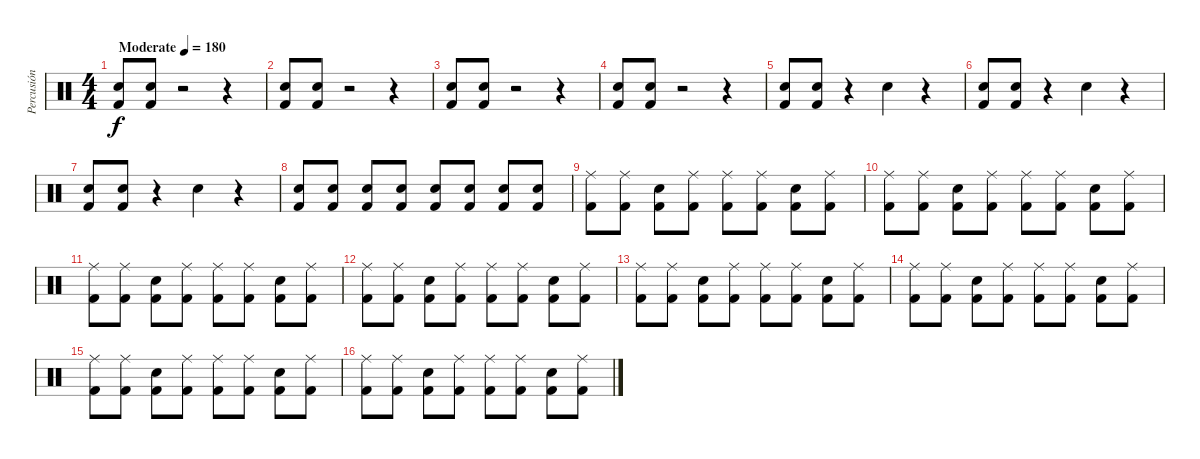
\track ("Percusión" "Percusión") {instrument percussion}
\staff {score}
\articulation defaults
\ts (4 4)
\tempo (180 "Moderate")
\clef neutral
\ks c
("Kick (hit) 2" "Snare (hit) 2").8{dy f} ("Kick (hit) 2" "Snare (hit) 2").8 r.2 r.4 |
("Kick (hit) 2" "Snare (hit) 2").8 ("Kick (hit) 2" "Snare (hit) 2").8 r.2 r.4 |
("Kick (hit) 2" "Snare (hit) 2").8 ("Kick (hit) 2" "Snare (hit) 2").8 r.2 r.4 |
("Kick (hit) 2" "Snare (hit) 2").8 ("Kick (hit) 2" "Snare (hit) 2").8 r.2 r.4 |
("Kick (hit) 2" "Snare (hit) 2").8 ("Kick (hit) 2" "Snare (hit) 2").8 r.4 "Snare (hit) 2".4 r.4 |
("Kick (hit) 2" "Snare (hit) 2").8 ("Kick (hit) 2" "Snare (hit) 2").8 r.4 "Snare (hit) 2".4 r.4 |
("Kick (hit) 2" "Snare (hit) 2").8 ("Kick (hit) 2" "Snare (hit) 2").8 r.4 "Snare (hit) 2".4 r.4 |
("Kick (hit) 2" "Snare (hit) 2").8 ("Kick (hit) 2" "Snare (hit) 2").8 ("Kick (hit) 2" "Snare (hit) 2").8 ("Kick (hit) 2" "Snare (hit) 2").8 ("Kick (hit) 2" "Snare (hit) 2").8 ("Kick (hit) 2" "Snare (hit) 2").8 ("Kick (hit) 2" "Snare (hit) 2").8 ("Kick (hit) 2" "Snare (hit) 2").8 |
("Kick (hit) 2" "Ride (middle)").8 ("Kick (hit) 2" "Ride (middle)").8 ("Kick (hit) 2" "Snare (hit) 2").8 ("Kick (hit) 2" "Ride (middle)").8 ("Kick (hit) 2" "Ride (middle)").8 ("Kick (hit) 2" "Ride (middle)").8 ("Kick (hit) 2" "Snare (hit) 2").8 ("Kick (hit) 2" "Ride (middle)").8 |
("Kick (hit) 2" "Ride (middle)").8 ("Kick (hit) 2" "Ride (middle)").8 ("Kick (hit) 2" "Snare (hit) 2").8 ("Kick (hit) 2" "Ride (middle)").8 ("Kick (hit) 2" "Ride (middle)").8 ("Kick (hit) 2" "Ride (middle)").8 ("Kick (hit) 2" "Snare (hit) 2").8 ("Kick (hit) 2" "Ride (middle)").8 |
("Kick (hit) 2" "Ride (middle)").8 ("Kick (hit) 2" "Ride (middle)").8 ("Kick (hit) 2" "Snare (hit) 2").8 ("Kick (hit) 2" "Ride (middle)").8 ("Kick (hit) 2" "Ride (middle)").8 ("Kick (hit) 2" "Ride (middle)").8 ("Kick (hit) 2" "Snare (hit) 2").8 ("Kick (hit) 2" "Ride (middle)").8 |
("Kick (hit) 2" "Ride (middle)").8 ("Kick (hit) 2" "Ride (middle)").8 ("Kick (hit) 2" "Snare (hit) 2").8 ("Kick (hit) 2" "Ride (middle)").8 ("Kick (hit) 2" "Ride (middle)").8 ("Kick (hit) 2" "Ride (middle)").8 ("Kick (hit) 2" "Snare (hit) 2").8 ("Kick (hit) 2" "Ride (middle)").8 |
("Kick (hit) 2" "Ride (middle)").8 ("Kick (hit) 2" "Ride (middle)").8 ("Kick (hit) 2" "Snare (hit) 2").8 ("Kick (hit) 2" "Ride (middle)").8 ("Kick (hit) 2" "Ride (middle)").8 ("Kick (hit) 2" "Ride (middle)").8 ("Kick (hit) 2" "Snare (hit) 2").8 ("Kick (hit) 2" "Ride (middle)").8 |
("Kick (hit) 2" "Ride (middle)").8 ("Kick (hit) 2" "Ride (middle)").8 ("Kick (hit) 2" "Snare (hit) 2").8 ("Kick (hit) 2" "Ride (middle)").8 ("Kick (hit) 2" "Ride (middle)").8 ("Kick (hit) 2" "Ride (middle)").8 ("Kick (hit) 2" "Snare (hit) 2").8 ("Kick (hit) 2" "Ride (middle)").8 |
("Kick (hit) 2" "Ride (middle)").8 ("Kick (hit) 2" "Ride (middle)").8 ("Kick (hit) 2" "Snare (hit) 2").8 ("Kick (hit) 2" "Ride (middle)").8 ("Kick (hit) 2" "Ride (middle)").8 ("Kick (hit) 2" "Ride (middle)").8 ("Kick (hit) 2" "Snare (hit) 2").8 ("Kick (hit) 2" "Ride (middle)").8 |
("Kick (hit) 2" "Ride (middle)").8 ("Kick (hit) 2" "Ride (middle)").8 ("Kick (hit) 2" "Snare (hit) 2").8 ("Kick (hit) 2" "Ride (middle)").8 ("Kick (hit) 2" "Ride (middle)").8 ("Kick (hit) 2" "Ride (middle)").8 ("Kick (hit) 2" "Snare (hit) 2").8 ("Kick (hit) 2" "Ride (middle)").8
